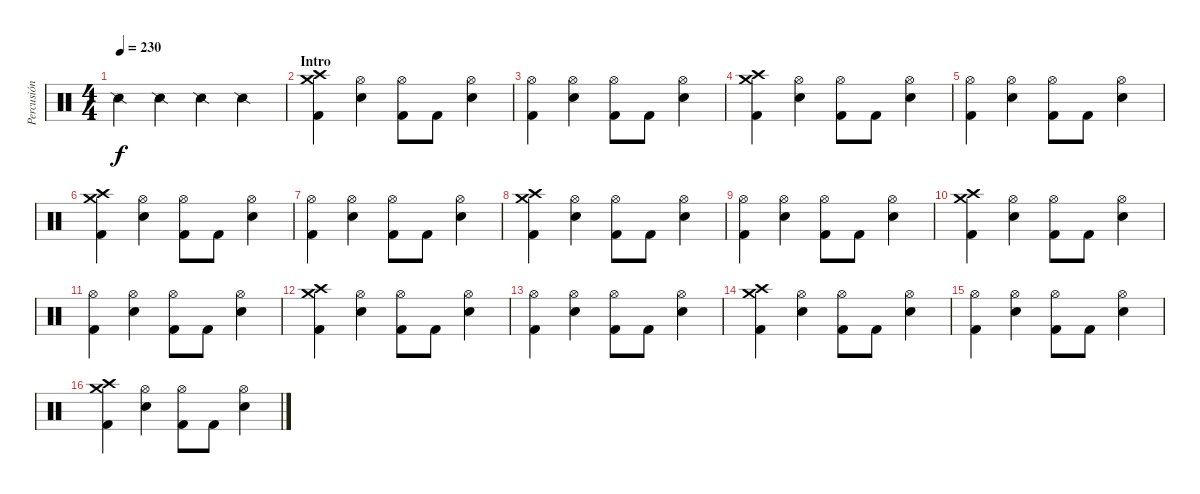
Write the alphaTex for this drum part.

\track ("Percusión" "Percusión") {instrument percussion}
\staff {score}
\articulation defaults
\ts (4 4)
\tempo 230
\clef neutral
\ks c "Snare (side stick) 2".4{dy f} "Snare (side stick) 2".4 "Snare (side stick) 2".4 "Snare (side stick) 2".4
|
\section ("" "Intro")
("Crash medium (hit)" "Crash high (hit)" "Kick (hit) 2").4 ("Hi-Hat (open)" "Snare (hit) 2").4 ("Hi-Hat (open)" "Kick (hit) 2").8 "Kick (hit) 2".8 ("Hi-Hat (open)" "Snare (hit) 2").4 |
("Hi-Hat (open)" "Kick (hit) 2").4 ("Hi-Hat (open)" "Snare (hit) 2").4 ("Hi-Hat (open)" "Kick (hit) 2").8 "Kick (hit) 2".8 ("Hi-Hat (open)" "Snare (hit) 2").4 |
("Crash medium (hit)" "Crash high (hit)" "Kick (hit) 2").4 ("Hi-Hat (open)" "Snare (hit) 2").4 ("Hi-Hat (open)" "Kick (hit) 2").8 "Kick (hit) 2".8 ("Hi-Hat (open)" "Snare (hit) 2").4 |
("Hi-Hat (open)" "Kick (hit) 2").4 ("Hi-Hat (open)" "Snare (hit) 2").4 ("Hi-Hat (open)" "Kick (hit) 2").8 "Kick (hit) 2".8 ("Hi-Hat (open)" "Snare (hit) 2").4 |
("Crash medium (hit)" "Crash high (hit)" "Kick (hit) 2").4 ("Hi-Hat (open)" "Snare (hit) 2").4 ("Hi-Hat (open)" "Kick (hit) 2").8 "Kick (hit) 2".8 ("Hi-Hat (open)" "Snare (hit) 2").4 |
("Hi-Hat (open)" "Kick (hit) 2").4 ("Hi-Hat (open)" "Snare (hit) 2").4 ("Hi-Hat (open)" "Kick (hit) 2").8 "Kick (hit) 2".8 ("Hi-Hat (open)" "Snare (hit) 2").4 |
("Crash medium (hit)" "Crash high (hit)" "Kick (hit) 2").4 ("Hi-Hat (open)" "Snare (hit) 2").4 ("Hi-Hat (open)" "Kick (hit) 2").8 "Kick (hit) 2".8 ("Hi-Hat (open)" "Snare (hit) 2").4 |
("Hi-Hat (open)" "Kick (hit) 2").4 ("Hi-Hat (open)" "Snare (hit) 2").4 ("Hi-Hat (open)" "Kick (hit) 2").8 "Kick (hit) 2".8 ("Hi-Hat (open)" "Snare (hit) 2").4 |
("Crash medium (hit)" "Crash high (hit)" "Kick (hit) 2").4 ("Hi-Hat (open)" "Snare (hit) 2").4 ("Hi-Hat (open)" "Kick (hit) 2").8 "Kick (hit) 2".8 ("Hi-Hat (open)" "Snare (hit) 2").4 |
("Hi-Hat (open)" "Kick (hit) 2").4 ("Hi-Hat (open)" "Snare (hit) 2").4 ("Hi-Hat (open)" "Kick (hit) 2").8 "Kick (hit) 2".8 ("Hi-Hat (open)" "Snare (hit) 2").4 |
("Crash medium (hit)" "Crash high (hit)" "Kick (hit) 2").4 ("Hi-Hat (open)" "Snare (hit) 2").4 ("Hi-Hat (open)" "Kick (hit) 2").8 "Kick (hit) 2".8 ("Hi-Hat (open)" "Snare (hit) 2").4 |
("Hi-Hat (open)" "Kick (hit) 2").4 ("Hi-Hat (open)" "Snare (hit) 2").4 ("Hi-Hat (open)" "Kick (hit) 2").8 "Kick (hit) 2".8 ("Hi-Hat (open)" "Snare (hit) 2").4 |
("Crash medium (hit)" "Crash high (hit)" "Kick (hit) 2").4 ("Hi-Hat (open)" "Snare (hit) 2").4 ("Hi-Hat (open)" "Kick (hit) 2").8 "Kick (hit) 2".8 ("Hi-Hat (open)" "Snare (hit) 2").4 |
("Hi-Hat (open)" "Kick (hit) 2").4 ("Hi-Hat (open)" "Snare (hit) 2").4 ("Hi-Hat (open)" "Kick (hit) 2").8 "Kick (hit) 2".8 ("Hi-Hat (open)" "Snare (hit) 2").4 |
("Crash medium (hit)" "Crash high (hit)" "Kick (hit) 2").4 ("Hi-Hat (open)" "Snare (hit) 2").4 ("Hi-Hat (open)" "Kick (hit) 2").8 "Kick (hit) 2".8 ("Hi-Hat (open)" "Snare (hit) 2").4
